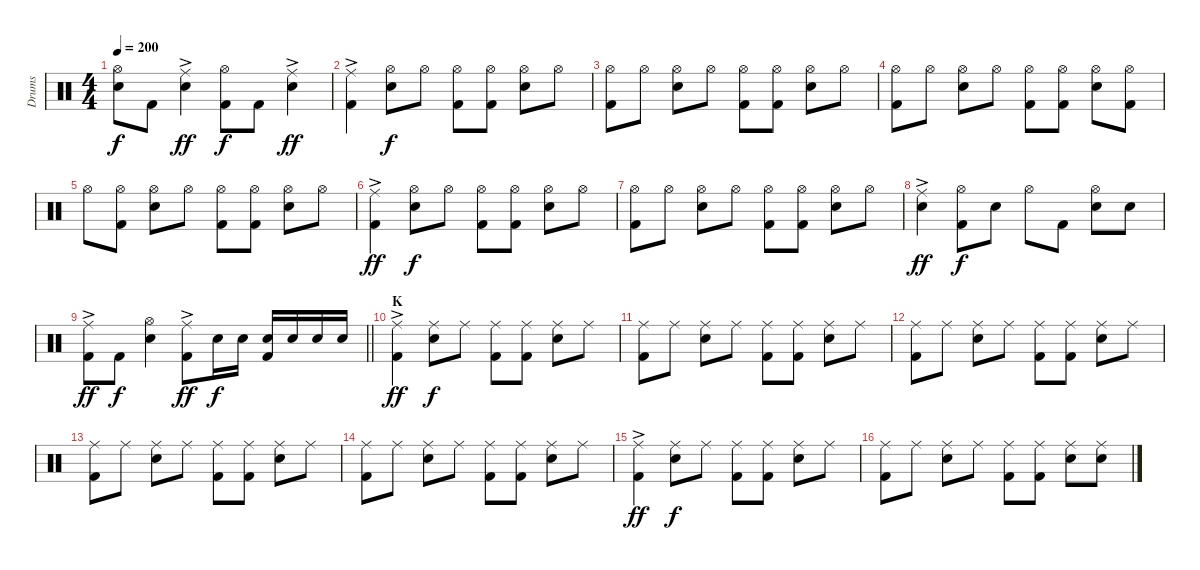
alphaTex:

\track ("Drums" "Drums") {instrument percussion}
\staff {score}
\articulation defaults
\ts (4 4)
\tempo 200
\clef neutral
\ks c
("Hi-Hat (open)" "Snare (hit) 2").8{dy f} "Kick (hit) 2".8 ("Ride (middle)"{ac} "Snare (hit) 2").4{dy ff} ("Hi-Hat (open)" "Kick (hit) 2").8{dy f} "Kick (hit) 2".8 ("Ride (middle)"{ac} "Snare (hit) 2").4{dy ff} |
("Ride (middle)"{ac} "Kick (hit) 2").4 ("Hi-Hat (open)" "Snare (hit) 2").8{dy f} "Hi-Hat (open)".8 ("Hi-Hat (open)" "Kick (hit) 2").8 ("Hi-Hat (open)" "Kick (hit) 2").8 ("Hi-Hat (open)" "Snare (hit) 2").8 "Hi-Hat (open)".8 |
("Hi-Hat (open)" "Kick (hit) 2").8 "Hi-Hat (open)".8 ("Hi-Hat (open)" "Snare (hit) 2").8 "Hi-Hat (open)".8 ("Hi-Hat (open)" "Kick (hit) 2").8 ("Hi-Hat (open)" "Kick (hit) 2").8 ("Hi-Hat (open)" "Snare (hit) 2").8 "Hi-Hat (open)".8 |
("Hi-Hat (open)" "Kick (hit) 2").8 "Hi-Hat (open)".8 ("Hi-Hat (open)" "Snare (hit) 2").8 "Hi-Hat (open)".8 ("Hi-Hat (open)" "Kick (hit) 2").8 ("Hi-Hat (open)" "Kick (hit) 2").8 ("Hi-Hat (open)" "Snare (hit) 2").8 ("Hi-Hat (open)" "Kick (hit) 2").8 |
"Hi-Hat (open)".8 ("Hi-Hat (open)" "Kick (hit) 2").8 ("Hi-Hat (open)" "Snare (hit) 2").8 "Hi-Hat (open)".8 ("Hi-Hat (open)" "Kick (hit) 2").8 ("Hi-Hat (open)" "Kick (hit) 2").8 ("Hi-Hat (open)" "Snare (hit) 2").8 "Hi-Hat (open)".8 |
("Ride (middle)"{ac} "Kick (hit) 2").4{dy ff} ("Hi-Hat (open)" "Snare (hit) 2").8{dy f} "Hi-Hat (open)".8 ("Hi-Hat (open)" "Kick (hit) 2").8 ("Hi-Hat (open)" "Kick (hit) 2").8 ("Hi-Hat (open)" "Snare (hit) 2").8 "Hi-Hat (open)".8 |
("Hi-Hat (open)" "Kick (hit) 2").8 "Hi-Hat (open)".8 ("Hi-Hat (open)" "Snare (hit) 2").8 "Hi-Hat (open)".8 ("Hi-Hat (open)" "Kick (hit) 2").8 ("Hi-Hat (open)" "Kick (hit) 2").8 ("Hi-Hat (open)" "Snare (hit) 2").8 "Hi-Hat (open)".8 |
("Ride (middle)"{ac} "Snare (hit) 2").4{dy ff} ("Hi-Hat (open)" "Kick (hit) 2").8{dy f} "Snare (hit) 2".8 "Hi-Hat (open)".8 "Kick (hit) 2".8 ("Hi-Hat (open)" "Snare (hit) 2").8 "Snare (hit) 2".8 |
\barLineRight lightlight
("Ride (middle)"{ac} "Kick (hit) 2").8{dy ff} "Kick (hit) 2".8{dy f} ("Hi-Hat (open)" "Snare (hit) 2").4 ("Ride (middle)"{ac} "Kick (hit) 2").8{dy ff} "Snare (hit) 2".16{dy f} "Snare (hit) 2".16 ("Snare (hit) 2" "Kick (hit) 2").16 "Snare (hit) 2".16 "Snare (hit) 2".16 "Snare (hit) 2".16 |
\section ("" "K")
("Ride (middle)"{ac} "Kick (hit) 2").4{dy ff} ("Ride (middle)" "Snare (hit) 2").8{dy f} "Ride (middle)".8 ("Ride (middle)" "Kick (hit) 2").8 ("Ride (middle)" "Kick (hit) 2").8 ("Ride (middle)" "Snare (hit) 2").8 "Ride (middle)".8 |
("Ride (middle)" "Kick (hit) 2").8 "Ride (middle)".8 ("Ride (middle)" "Snare (hit) 2").8 "Ride (middle)".8 ("Ride (middle)" "Kick (hit) 2").8 ("Ride (middle)" "Kick (hit) 2").8 ("Ride (middle)" "Snare (hit) 2").8 "Ride (middle)".8 |
("Ride (middle)" "Kick (hit) 2").8 "Ride (middle)".8 ("Ride (middle)" "Snare (hit) 2").8 "Ride (middle)".8 ("Ride (middle)" "Kick (hit) 2").8 ("Ride (middle)" "Kick (hit) 2").8 ("Ride (middle)" "Snare (hit) 2").8 "Ride (middle)".8 |
("Ride (middle)" "Kick (hit) 2").8 "Ride (middle)".8 ("Ride (middle)" "Snare (hit) 2").8 "Ride (middle)".8 ("Ride (middle)" "Kick (hit) 2").8 ("Ride (middle)" "Kick (hit) 2").8 ("Ride (middle)" "Snare (hit) 2").8 "Ride (middle)".8 |
("Ride (middle)" "Kick (hit) 2").8 "Ride (middle)".8 ("Ride (middle)" "Snare (hit) 2").8 "Ride (middle)".8 ("Ride (middle)" "Kick (hit) 2").8 ("Ride (middle)" "Kick (hit) 2").8 ("Ride (middle)" "Snare (hit) 2").8 "Ride (middle)".8 |
("Ride (middle)"{ac} "Kick (hit) 2").4{dy ff} ("Ride (middle)" "Snare (hit) 2").8{dy f} "Ride (middle)".8 ("Ride (middle)" "Kick (hit) 2").8 ("Ride (middle)" "Kick (hit) 2").8 ("Ride (middle)" "Snare (hit) 2").8 "Ride (middle)".8 |
("Ride (middle)" "Kick (hit) 2").8 "Ride (middle)".8 ("Ride (middle)" "Snare (hit) 2").8 "Ride (middle)".8 ("Ride (middle)" "Kick (hit) 2").8 ("Ride (middle)" "Kick (hit) 2").8 ("Ride (middle)" "Snare (hit) 2").8 ("Ride (middle)" "Snare (hit) 2").8
